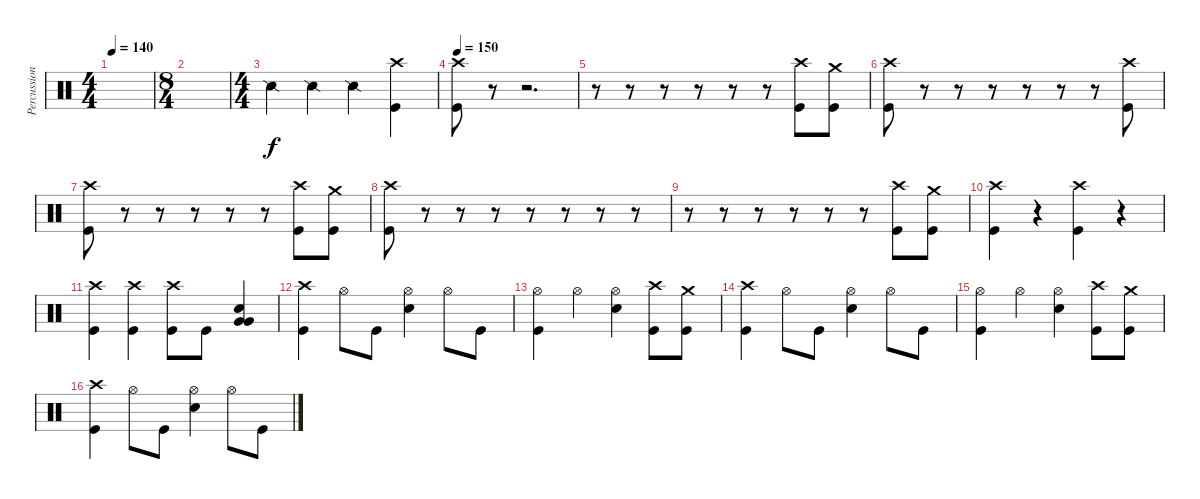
\track ("Percussion" "Percussion") {instrument percussion}
\staff {score}
\articulation defaults
\ts (4 4)
\tempo 140
\clef neutral
\ks c
|
\ts (8 4)
|
\ts (4 4)
"Snare (side stick) 2".4 "Snare (side stick) 2".4 "Snare (side stick) 2".4 ("Kick (hit)" "Crash high (hit)").4 |
\tempo 150
("Kick (hit)" "Crash high (hit)").8 r.8 r.2{d} |
r.8 r.8 r.8 r.8 r.8 r.8 ("Kick (hit)" "Crash high (hit)").8 ("Kick (hit)" "Crash medium (hit)").8 |
("Kick (hit)" "Crash high (hit)").8 r.8 r.8 r.8 r.8 r.8 r.8 ("Kick (hit)" "Crash high (hit)").8 |
("Kick (hit)" "Crash high (hit)").8 r.8 r.8 r.8 r.8 r.8 ("Kick (hit)" "Crash high (hit)").8 ("Kick (hit)" "Crash medium (hit)").8 |
("Kick (hit)" "Crash high (hit)").8 r.8 r.8 r.8 r.8 r.8 r.8 r.8 |
r.8 r.8 r.8 r.8 r.8 r.8 ("Kick (hit)" "Crash high (hit)").8 ("Kick (hit)" "Crash medium (hit)").8 |
("Kick (hit)" "Crash high (hit)").4 r.4 ("Kick (hit)" "Crash high (hit)").4 r.4 |
("Kick (hit)" "Crash high (hit)").4 ("Kick (hit)" "Crash high (hit)").4 ("Kick (hit)" "Crash high (hit)").8 "Kick (hit)".8 ("Very Low Tom (hit)" "Very Low Tom (hit)" "Snare (hit) 2").4 |
("Kick (hit)" "Crash high (hit)").4 "Hi-Hat (open)".8 "Kick (hit)".8 ("Hi-Hat (open)" "Snare (hit) 2").4 "Hi-Hat (open)".8 "Kick (hit)".8 |
("Kick (hit)" "Hi-Hat (open)").4 "Hi-Hat (open)".4 ("Hi-Hat (open)" "Snare (hit) 2").4 ("Kick (hit)" "Crash high (hit)").8 ("Kick (hit)" "Crash medium (hit)").8 |
("Kick (hit)" "Crash high (hit)").4 "Hi-Hat (open)".8 "Kick (hit)".8 ("Hi-Hat (open)" "Snare (hit) 2").4 "Hi-Hat (open)".8 "Kick (hit)".8 |
("Kick (hit)" "Hi-Hat (open)").4 "Hi-Hat (open)".4 ("Hi-Hat (open)" "Snare (hit) 2").4 ("Kick (hit)" "Crash high (hit)").8 ("Kick (hit)" "Crash medium (hit)").8 |
("Kick (hit)" "Crash high (hit)").4 "Hi-Hat (open)".8 "Kick (hit)".8 ("Hi-Hat (open)" "Snare (hit) 2").4 "Hi-Hat (open)".8 "Kick (hit)".8
